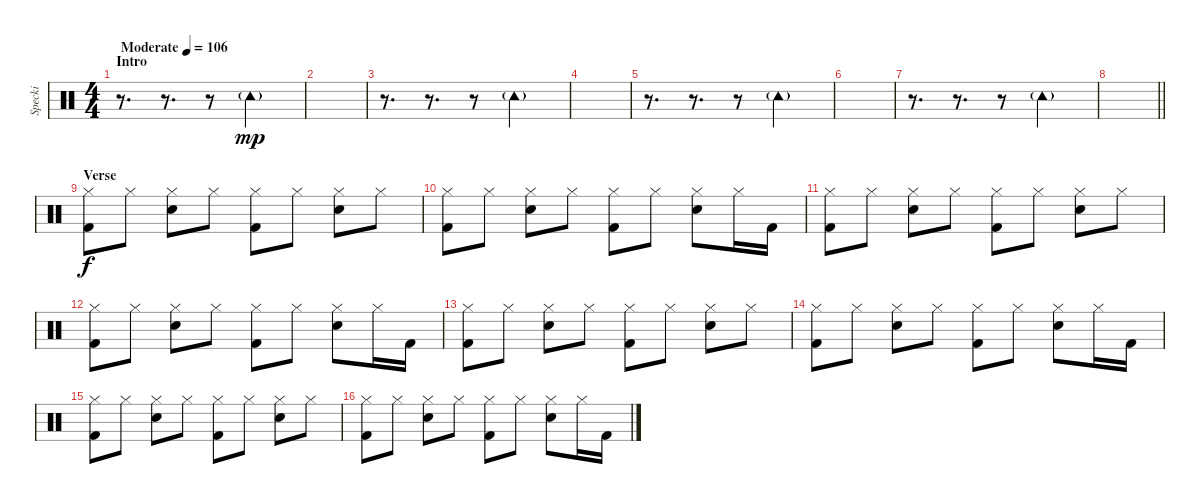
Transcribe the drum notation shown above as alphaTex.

\track ("Specki" "Specki") {instrument percussion}
\staff {score}
\articulation defaults
\ts (4 4)
\section ("" "Intro")
\tempo (106 "Moderate")
\clef neutral
\ks c
r.8{d dy mp} r.8{d} r.8 "Tambourine (hit)"{g}.2 |
|
r.8{d} r.8{d} r.8 "Tambourine (hit)"{g}.2 |
|
r.8{d} r.8{d} r.8 "Tambourine (hit)"{g}.2 |
|
r.8{d} r.8{d} r.8 "Tambourine (hit)"{g}.2 |
\barLineRight lightlight
|
\section ("" "Verse")
("Hi-Hat (closed)" "Kick (hit) 2").8{dy f} "Hi-Hat (closed)".8 ("Hi-Hat (closed)" "Snare (hit) 2").8 "Hi-Hat (closed)".8 ("Hi-Hat (closed)" "Kick (hit) 2").8 "Hi-Hat (closed)".8 ("Hi-Hat (closed)" "Snare (hit) 2").8 "Hi-Hat (closed)".8 |
("Hi-Hat (closed)" "Kick (hit) 2").8 "Hi-Hat (closed)".8 ("Hi-Hat (closed)" "Snare (hit) 2").8 "Hi-Hat (closed)".8 ("Hi-Hat (closed)" "Kick (hit) 2").8 "Hi-Hat (closed)".8 ("Hi-Hat (closed)" "Snare (hit) 2").8 "Hi-Hat (closed)".16 "Kick (hit) 2".16 |
("Hi-Hat (closed)" "Kick (hit) 2").8 "Hi-Hat (closed)".8 ("Hi-Hat (closed)" "Snare (hit) 2").8 "Hi-Hat (closed)".8 ("Hi-Hat (closed)" "Kick (hit) 2").8 "Hi-Hat (closed)".8 ("Hi-Hat (closed)" "Snare (hit) 2").8 "Hi-Hat (closed)".8 |
("Hi-Hat (closed)" "Kick (hit) 2").8 "Hi-Hat (closed)".8 ("Hi-Hat (closed)" "Snare (hit) 2").8 "Hi-Hat (closed)".8 ("Hi-Hat (closed)" "Kick (hit) 2").8 "Hi-Hat (closed)".8 ("Hi-Hat (closed)" "Snare (hit) 2").8 "Hi-Hat (closed)".16 "Kick (hit) 2".16 |
("Hi-Hat (closed)" "Kick (hit) 2").8 "Hi-Hat (closed)".8 ("Hi-Hat (closed)" "Snare (hit) 2").8 "Hi-Hat (closed)".8 ("Hi-Hat (closed)" "Kick (hit) 2").8 "Hi-Hat (closed)".8 ("Hi-Hat (closed)" "Snare (hit) 2").8 "Hi-Hat (closed)".8 |
("Hi-Hat (closed)" "Kick (hit) 2").8 "Hi-Hat (closed)".8 ("Hi-Hat (closed)" "Snare (hit) 2").8 "Hi-Hat (closed)".8 ("Hi-Hat (closed)" "Kick (hit) 2").8 "Hi-Hat (closed)".8 ("Hi-Hat (closed)" "Snare (hit) 2").8 "Hi-Hat (closed)".16 "Kick (hit) 2".16 |
("Hi-Hat (closed)" "Kick (hit) 2").8 "Hi-Hat (closed)".8 ("Hi-Hat (closed)" "Snare (hit) 2").8 "Hi-Hat (closed)".8 ("Hi-Hat (closed)" "Kick (hit) 2").8 "Hi-Hat (closed)".8 ("Hi-Hat (closed)" "Snare (hit) 2").8 "Hi-Hat (closed)".8 |
("Hi-Hat (closed)" "Kick (hit) 2").8 "Hi-Hat (closed)".8 ("Hi-Hat (closed)" "Snare (hit) 2").8 "Hi-Hat (closed)".8 ("Hi-Hat (closed)" "Kick (hit) 2").8 "Hi-Hat (closed)".8 ("Hi-Hat (closed)" "Snare (hit) 2").8 "Hi-Hat (closed)".16 "Kick (hit) 2".16
